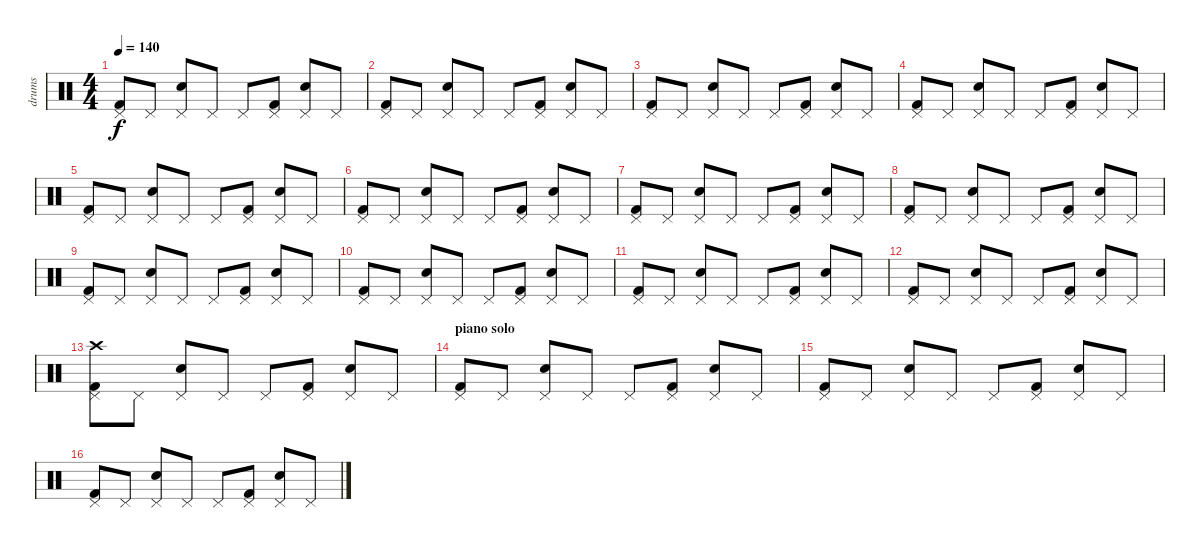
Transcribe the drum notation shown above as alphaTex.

\track ("drums" "drums") {instrument percussion}
\staff {score}
\articulation defaults
\ts (4 4)
\tempo 140
\clef neutral
\ks c
("Kick (hit) 2" "Pedal Hi-Hat (hit)").8{dy f} "Pedal Hi-Hat (hit)".8 ("Snare (hit) 2" "Pedal Hi-Hat (hit)").8 "Pedal Hi-Hat (hit)".8 "Pedal Hi-Hat (hit)".8 ("Kick (hit) 2" "Pedal Hi-Hat (hit)").8 ("Snare (hit) 2" "Pedal Hi-Hat (hit)").8 "Pedal Hi-Hat (hit)".8 |
("Kick (hit) 2" "Pedal Hi-Hat (hit)").8 "Pedal Hi-Hat (hit)".8 ("Snare (hit) 2" "Pedal Hi-Hat (hit)").8 "Pedal Hi-Hat (hit)".8 "Pedal Hi-Hat (hit)".8 ("Kick (hit) 2" "Pedal Hi-Hat (hit)").8 ("Snare (hit) 2" "Pedal Hi-Hat (hit)").8 "Pedal Hi-Hat (hit)".8 |
("Kick (hit) 2" "Pedal Hi-Hat (hit)").8 "Pedal Hi-Hat (hit)".8 ("Snare (hit) 2" "Pedal Hi-Hat (hit)").8 "Pedal Hi-Hat (hit)".8 "Pedal Hi-Hat (hit)".8 ("Kick (hit) 2" "Pedal Hi-Hat (hit)").8 ("Snare (hit) 2" "Pedal Hi-Hat (hit)").8 "Pedal Hi-Hat (hit)".8 |
("Kick (hit) 2" "Pedal Hi-Hat (hit)").8 "Pedal Hi-Hat (hit)".8 ("Snare (hit) 2" "Pedal Hi-Hat (hit)").8 "Pedal Hi-Hat (hit)".8 "Pedal Hi-Hat (hit)".8 ("Kick (hit) 2" "Pedal Hi-Hat (hit)").8 ("Snare (hit) 2" "Pedal Hi-Hat (hit)").8 "Pedal Hi-Hat (hit)".8 |
("Kick (hit) 2" "Pedal Hi-Hat (hit)").8 "Pedal Hi-Hat (hit)".8 ("Snare (hit) 2" "Pedal Hi-Hat (hit)").8 "Pedal Hi-Hat (hit)".8 "Pedal Hi-Hat (hit)".8 ("Kick (hit) 2" "Pedal Hi-Hat (hit)").8 ("Snare (hit) 2" "Pedal Hi-Hat (hit)").8 "Pedal Hi-Hat (hit)".8 |
("Kick (hit) 2" "Pedal Hi-Hat (hit)").8 "Pedal Hi-Hat (hit)".8 ("Snare (hit) 2" "Pedal Hi-Hat (hit)").8 "Pedal Hi-Hat (hit)".8 "Pedal Hi-Hat (hit)".8 ("Kick (hit) 2" "Pedal Hi-Hat (hit)").8 ("Snare (hit) 2" "Pedal Hi-Hat (hit)").8 "Pedal Hi-Hat (hit)".8 |
("Kick (hit) 2" "Pedal Hi-Hat (hit)").8 "Pedal Hi-Hat (hit)".8 ("Snare (hit) 2" "Pedal Hi-Hat (hit)").8 "Pedal Hi-Hat (hit)".8 "Pedal Hi-Hat (hit)".8 ("Kick (hit) 2" "Pedal Hi-Hat (hit)").8 ("Snare (hit) 2" "Pedal Hi-Hat (hit)").8 "Pedal Hi-Hat (hit)".8 |
("Kick (hit) 2" "Pedal Hi-Hat (hit)").8 "Pedal Hi-Hat (hit)".8 ("Snare (hit) 2" "Pedal Hi-Hat (hit)").8 "Pedal Hi-Hat (hit)".8 "Pedal Hi-Hat (hit)".8 ("Kick (hit) 2" "Pedal Hi-Hat (hit)").8 ("Snare (hit) 2" "Pedal Hi-Hat (hit)").8 "Pedal Hi-Hat (hit)".8 |
("Kick (hit) 2" "Pedal Hi-Hat (hit)").8 "Pedal Hi-Hat (hit)".8 ("Snare (hit) 2" "Pedal Hi-Hat (hit)").8 "Pedal Hi-Hat (hit)".8 "Pedal Hi-Hat (hit)".8 ("Kick (hit) 2" "Pedal Hi-Hat (hit)").8 ("Snare (hit) 2" "Pedal Hi-Hat (hit)").8 "Pedal Hi-Hat (hit)".8 |
("Kick (hit) 2" "Pedal Hi-Hat (hit)").8 "Pedal Hi-Hat (hit)".8 ("Snare (hit) 2" "Pedal Hi-Hat (hit)").8 "Pedal Hi-Hat (hit)".8 "Pedal Hi-Hat (hit)".8 ("Kick (hit) 2" "Pedal Hi-Hat (hit)").8 ("Snare (hit) 2" "Pedal Hi-Hat (hit)").8 "Pedal Hi-Hat (hit)".8 |
("Kick (hit) 2" "Pedal Hi-Hat (hit)").8 "Pedal Hi-Hat (hit)".8 ("Snare (hit) 2" "Pedal Hi-Hat (hit)").8 "Pedal Hi-Hat (hit)".8 "Pedal Hi-Hat (hit)".8 ("Kick (hit) 2" "Pedal Hi-Hat (hit)").8 ("Snare (hit) 2" "Pedal Hi-Hat (hit)").8 "Pedal Hi-Hat (hit)".8 |
("Kick (hit) 2" "Pedal Hi-Hat (hit)").8 "Pedal Hi-Hat (hit)".8 ("Snare (hit) 2" "Pedal Hi-Hat (hit)").8 "Pedal Hi-Hat (hit)".8 "Pedal Hi-Hat (hit)".8 ("Kick (hit) 2" "Pedal Hi-Hat (hit)").8 ("Snare (hit) 2" "Pedal Hi-Hat (hit)").8 "Pedal Hi-Hat (hit)".8 |
("Kick (hit) 2" "Pedal Hi-Hat (hit)" "Crash high (hit)").8 "Pedal Hi-Hat (hit)".8 ("Snare (hit) 2" "Pedal Hi-Hat (hit)").8 "Pedal Hi-Hat (hit)".8 "Pedal Hi-Hat (hit)".8 ("Kick (hit) 2" "Pedal Hi-Hat (hit)").8 ("Snare (hit) 2" "Pedal Hi-Hat (hit)").8 "Pedal Hi-Hat (hit)".8 |
\section ("" "piano solo")
("Kick (hit) 2" "Pedal Hi-Hat (hit)").8 "Pedal Hi-Hat (hit)".8 ("Snare (hit) 2" "Pedal Hi-Hat (hit)").8 "Pedal Hi-Hat (hit)".8 "Pedal Hi-Hat (hit)".8 ("Kick (hit) 2" "Pedal Hi-Hat (hit)").8 ("Snare (hit) 2" "Pedal Hi-Hat (hit)").8 "Pedal Hi-Hat (hit)".8 |
("Kick (hit) 2" "Pedal Hi-Hat (hit)").8 "Pedal Hi-Hat (hit)".8 ("Snare (hit) 2" "Pedal Hi-Hat (hit)").8 "Pedal Hi-Hat (hit)".8 "Pedal Hi-Hat (hit)".8 ("Kick (hit) 2" "Pedal Hi-Hat (hit)").8 ("Snare (hit) 2" "Pedal Hi-Hat (hit)").8 "Pedal Hi-Hat (hit)".8 |
("Kick (hit) 2" "Pedal Hi-Hat (hit)").8 "Pedal Hi-Hat (hit)".8 ("Snare (hit) 2" "Pedal Hi-Hat (hit)").8 "Pedal Hi-Hat (hit)".8 "Pedal Hi-Hat (hit)".8 ("Kick (hit) 2" "Pedal Hi-Hat (hit)").8 ("Snare (hit) 2" "Pedal Hi-Hat (hit)").8 "Pedal Hi-Hat (hit)".8
